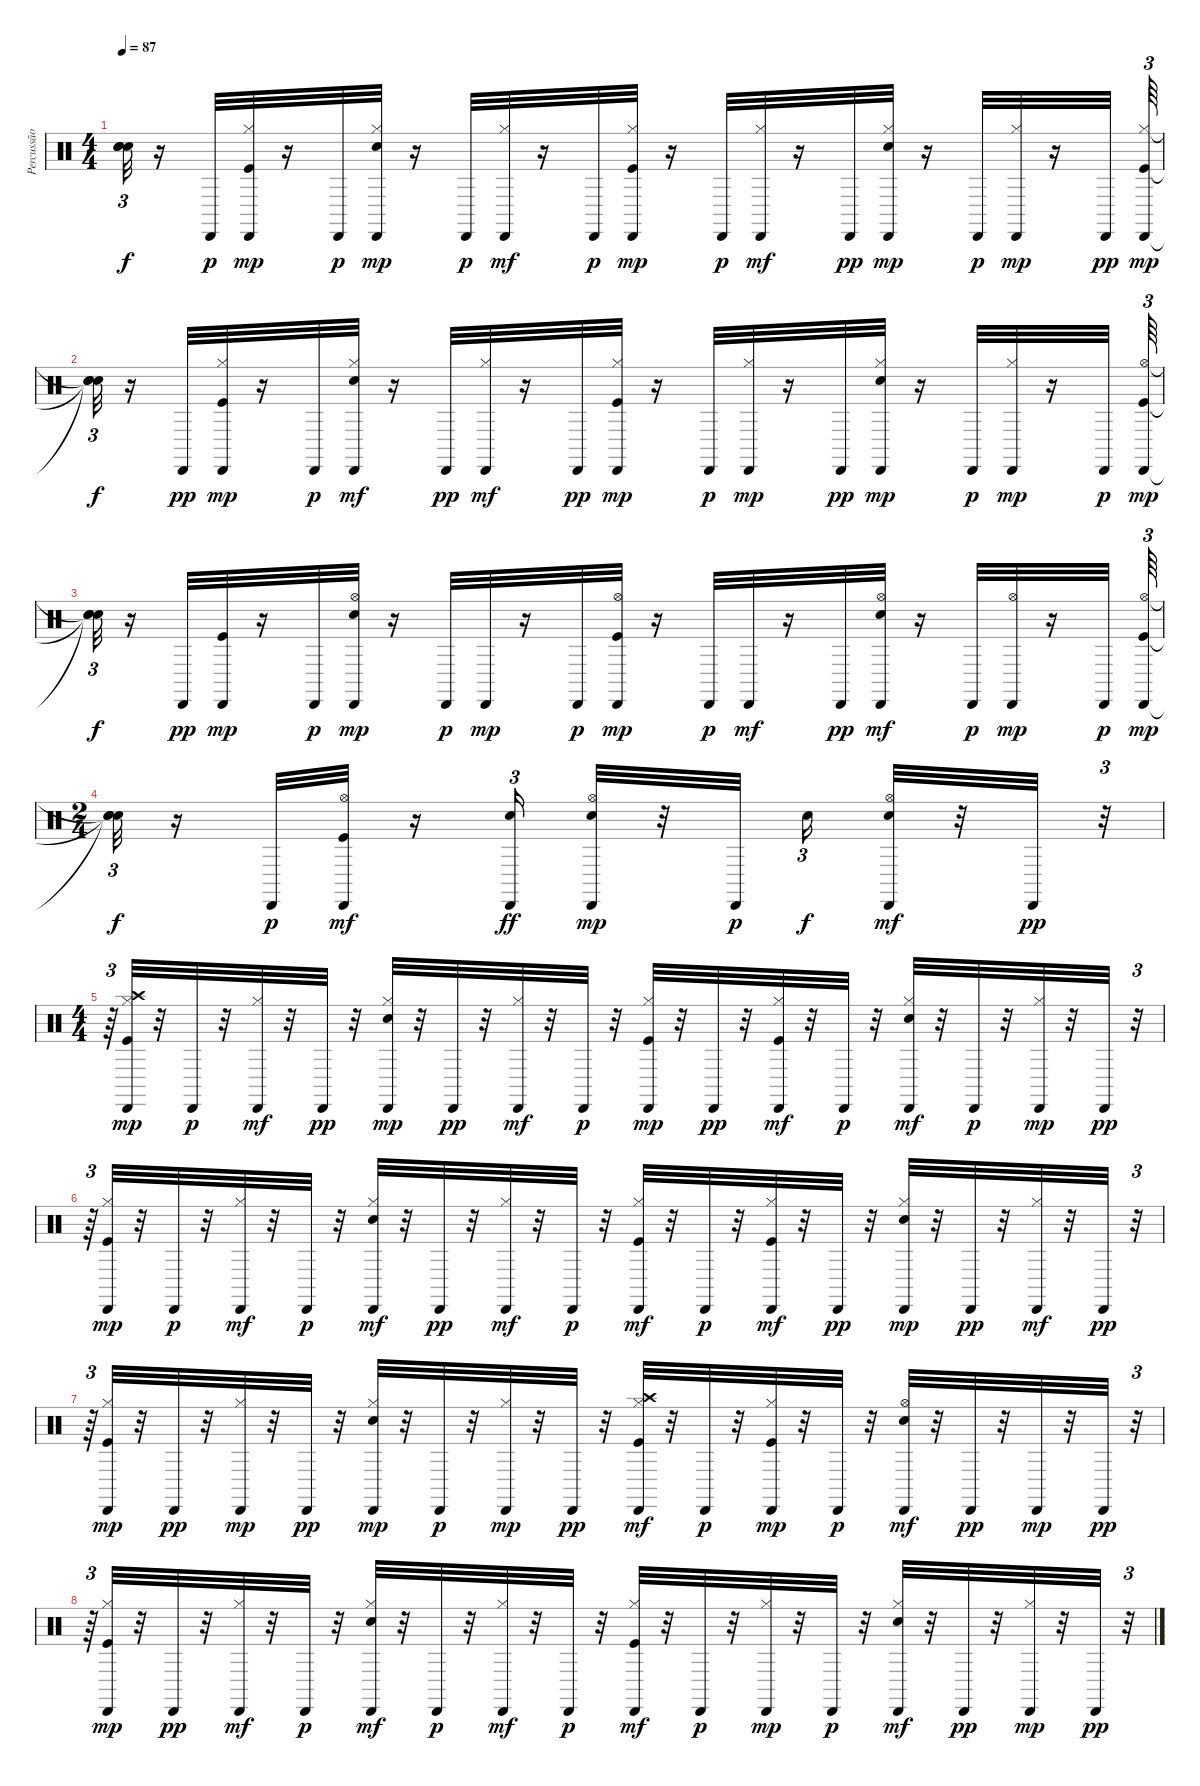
\track ("Percussão" "Percussão") {instrument percussion}
\staff {score}
\articulation defaults
\ts (4 4)
\tempo 87
\clef neutral
\ks c
("Snare (hit)"{t} "Snare (hit)"{t} "Snare (hit)"{t}).32{tu (3 2) dy f} r.16 "Cabasa (hit)".32{dy p} ("Kick (hit)" "Hi-Hat (closed)" "Cabasa (hit)").32{dy mp} r.16 "Cabasa (hit)".32{dy p} ("Electric Snare (hit)" "Hi-Hat (closed)" "Cabasa (hit)").32{dy mp} r.16 "Cabasa (hit)".32{dy p} ("Hi-Hat (closed)" "Cabasa (hit)").32{dy mf} r.16 "Cabasa (hit)".32{dy p} ("Kick (hit)" "Hi-Hat (closed)" "Cabasa (hit)").32{dy mp} r.16 "Cabasa (hit)".32{dy p} ("Hi-Hat (closed)" "Cabasa (hit)").32{dy mf} r.16 "Cabasa (hit)".32{dy pp} ("Electric Snare (hit)" "Hi-Hat (closed)" "Cabasa (hit)").32{dy mp} r.16 "Cabasa (hit)".32{dy p} ("Hi-Hat (closed)" "Cabasa (hit)").32{dy mp} r.16 "Cabasa (hit)".32{dy pp} ("Kick (hit)" "Hi-Hat (closed)" "Cabasa (hit)").64{tu (3 2) dy mp} |
("Snare (hit)"{t} "Snare (hit)"{t} "Snare (hit)"{t}).32{tu (3 2) dy f} r.16 "Cabasa (hit)".32{dy pp} ("Kick (hit)" "Hi-Hat (closed)" "Cabasa (hit)").32{dy mp} r.16 "Cabasa (hit)".32{dy p} ("Electric Snare (hit)" "Hi-Hat (closed)" "Cabasa (hit)").32{dy mf} r.16 "Cabasa (hit)".32{dy pp} ("Hi-Hat (closed)" "Cabasa (hit)").32{dy mf} r.16 "Cabasa (hit)".32{dy pp} ("Kick (hit)" "Hi-Hat (closed)" "Cabasa (hit)").32{dy mp} r.16 "Cabasa (hit)".32{dy p} ("Hi-Hat (closed)" "Cabasa (hit)").32{dy mp} r.16 "Cabasa (hit)".32{dy pp} ("Electric Snare (hit)" "Hi-Hat (closed)" "Cabasa (hit)").32{dy mp} r.16 "Cabasa (hit)".32{dy p} ("Hi-Hat (closed)" "Cabasa (hit)").32{dy mp} r.16 "Cabasa (hit)".32{dy p} ("Kick (hit)" "Hi-Hat (open)" "Cabasa (hit)").64{tu (3 2) dy mp} |
("Snare (hit)"{t} "Snare (hit)"{t} "Snare (hit)"{t}).32{tu (3 2) dy f} r.16 "Cabasa (hit)".32{dy pp} ("Kick (hit)" "Cabasa (hit)").32{dy mp} r.16 "Cabasa (hit)".32{dy p} ("Electric Snare (hit)" "Hi-Hat (open)" "Cabasa (hit)").32{dy mp} r.16 "Cabasa (hit)".32{dy p} "Cabasa (hit)".32{dy mp} r.16 "Cabasa (hit)".32{dy p} ("Kick (hit)" "Hi-Hat (open)" "Cabasa (hit)").32{dy mp} r.16 "Cabasa (hit)".32{dy p} "Cabasa (hit)".32{dy mf} r.16 "Cabasa (hit)".32{dy pp} ("Electric Snare (hit)" "Hi-Hat (open)" "Cabasa (hit)").32{dy mf} r.16 "Cabasa (hit)".32{dy p} ("Hi-Hat (open)" "Cabasa (hit)").32{dy mp} r.16 "Cabasa (hit)".32{dy p} ("Hi-Hat (open)" "Kick (hit)" "Cabasa (hit)").64{tu (3 2) dy mp} |
\ts (2 4)
("Snare (hit)"{t} "Snare (hit)"{t} "Snare (hit)"{t}).32{tu (3 2) dy f} r.16 "Cabasa (hit)".32{dy p} ("Kick (hit)" "Hi-Hat (open)" "Cabasa (hit)").32{dy mf} r.16 ("Cabasa (hit)" "Electric Snare (hit)").16{tu (3 2) dy ff} ("Electric Snare (hit)" "Hi-Hat (open)" "Cabasa (hit)").32{dy mp} r.32 "Cabasa (hit)".32{dy p beam splitsecondary} "Electric Snare (hit)".16{tu (3 2) dy f} ("Electric Snare (hit)" "Hi-Hat (open)" "Cabasa (hit)").32{dy mf} r.32 "Cabasa (hit)".32{dy pp} r.32{tu (3 2)} |
\ts (4 4)
r.64{tu (3 2)} ("Crash high (hit)" "Kick (hit)" "Hi-Hat (closed)" "Cabasa (hit)").32{dy mp} r.32 "Cabasa (hit)".32{dy p} r.32 ("Hi-Hat (closed)" "Cabasa (hit)").32{dy mf} r.32 "Cabasa (hit)".32{dy pp} r.32 ("Electric Snare (hit)" "Hi-Hat (closed)" "Cabasa (hit)").32{dy mp} r.32 "Cabasa (hit)".32{dy pp} r.32 ("Hi-Hat (closed)" "Cabasa (hit)").32{dy mf} r.32 "Cabasa (hit)".32{dy p} r.32 ("Kick (hit)" "Hi-Hat (closed)" "Cabasa (hit)").32{dy mp} r.32 "Cabasa (hit)".32{dy pp} r.32 ("Kick (hit)" "Hi-Hat (closed)" "Cabasa (hit)").32{dy mf} r.32 "Cabasa (hit)".32{dy p} r.32 ("Electric Snare (hit)" "Hi-Hat (closed)" "Cabasa (hit)").32{dy mf} r.32 "Cabasa (hit)".32{dy p} r.32 ("Hi-Hat (closed)" "Cabasa (hit)").32{dy mp} r.32 "Cabasa (hit)".32{dy pp} r.32{tu (3 2)} |
r.64{tu (3 2)} ("Kick (hit)" "Hi-Hat (closed)" "Cabasa (hit)").32{dy mp} r.32 "Cabasa (hit)".32{dy p} r.32 ("Hi-Hat (closed)" "Cabasa (hit)").32{dy mf} r.32 "Cabasa (hit)".32{dy p} r.32 ("Electric Snare (hit)" "Hi-Hat (closed)" "Cabasa (hit)").32{dy mf} r.32 "Cabasa (hit)".32{dy pp} r.32 ("Hi-Hat (closed)" "Cabasa (hit)").32{dy mf} r.32 "Cabasa (hit)".32{dy p} r.32 ("Kick (hit)" "Hi-Hat (closed)" "Cabasa (hit)").32{dy mf} r.32 "Cabasa (hit)".32{dy p} r.32 ("Kick (hit)" "Hi-Hat (closed)" "Cabasa (hit)").32{dy mf} r.32 "Cabasa (hit)".32{dy pp} r.32 ("Electric Snare (hit)" "Hi-Hat (closed)" "Cabasa (hit)").32{dy mp} r.32 "Cabasa (hit)".32{dy pp} r.32 ("Hi-Hat (closed)" "Cabasa (hit)").32{dy mf} r.32 "Cabasa (hit)".32{dy pp} r.32{tu (3 2)} |
r.64{tu (3 2)} ("Kick (hit)" "Hi-Hat (closed)" "Cabasa (hit)").32{dy mp} r.32 "Cabasa (hit)".32{dy pp} r.32 ("Hi-Hat (closed)" "Cabasa (hit)").32{dy mp} r.32 "Cabasa (hit)".32{dy pp} r.32 ("Electric Snare (hit)" "Hi-Hat (closed)" "Cabasa (hit)").32{dy mp} r.32 "Cabasa (hit)".32{dy p} r.32 ("Hi-Hat (closed)" "Cabasa (hit)").32{dy mp} r.32 "Cabasa (hit)".32{dy pp} r.32 ("Kick (hit)" "Hi-Hat (closed)" "Crash high (hit)" "Cabasa (hit)").32{dy mf} r.32 "Cabasa (hit)".32{dy p} r.32 ("Kick (hit)" "Hi-Hat (closed)" "Cabasa (hit)").32{dy mp} r.32 "Cabasa (hit)".32{dy p} r.32 ("Electric Snare (hit)" "Hi-Hat (open)" "Cabasa (hit)").32{dy mf} r.32 "Cabasa (hit)".32{dy pp} r.32 "Cabasa (hit)".32{dy mp} r.32 "Cabasa (hit)".32{dy pp} r.32{tu (3 2)} |
r.64{tu (3 2)} ("Kick (hit)" "Hi-Hat (closed)" "Cabasa (hit)").32{dy mp} r.32 "Cabasa (hit)".32{dy pp} r.32 ("Hi-Hat (closed)" "Cabasa (hit)").32{dy mf} r.32 "Cabasa (hit)".32{dy p} r.32 ("Electric Snare (hit)" "Hi-Hat (closed)" "Cabasa (hit)").32{dy mf} r.32 "Cabasa (hit)".32{dy p} r.32 ("Hi-Hat (closed)" "Cabasa (hit)").32{dy mf} r.32 "Cabasa (hit)".32{dy p} r.32 ("Kick (hit)" "Hi-Hat (closed)" "Cabasa (hit)").32{dy mf} r.32 "Cabasa (hit)".32{dy p} r.32 ("Hi-Hat (closed)" "Cabasa (hit)").32{dy mp} r.32 "Cabasa (hit)".32{dy p} r.32 ("Electric Snare (hit)" "Hi-Hat (closed)" "Cabasa (hit)").32{dy mf} r.32 "Cabasa (hit)".32{dy pp} r.32 ("Hi-Hat (closed)" "Cabasa (hit)").32{dy mp} r.32 "Cabasa (hit)".32{dy pp} r.32{tu (3 2)}
